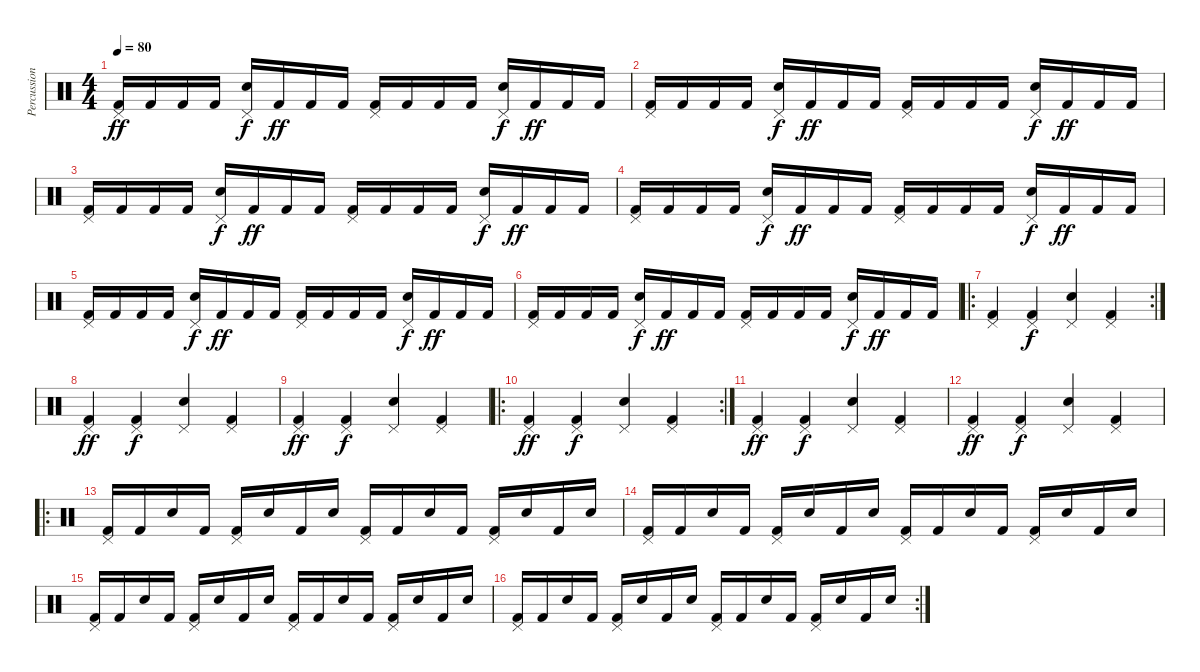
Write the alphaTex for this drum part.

\track ("Percussions" "Percussion") {instrument percussion}
\staff {score}
\articulation defaults
\ts (4 4)
\tempo 80
\clef neutral
\ks c
("Pedal Hi-Hat (hit)" "Kick (hit) 2").16{dy ff} "Kick (hit) 2".16 "Kick (hit) 2".16 "Kick (hit) 2".16 ("Pedal Hi-Hat (hit)" "Snare (hit) 2").16{dy f} "Kick (hit) 2".16{dy ff} "Kick (hit) 2".16 "Kick (hit) 2".16 ("Pedal Hi-Hat (hit)" "Kick (hit) 2").16 "Kick (hit) 2".16 "Kick (hit) 2".16 "Kick (hit) 2".16 ("Pedal Hi-Hat (hit)" "Snare (hit) 2").16{dy f} "Kick (hit) 2".16{dy ff} "Kick (hit) 2".16 "Kick (hit) 2".16 |
("Pedal Hi-Hat (hit)" "Kick (hit) 2").16 "Kick (hit) 2".16 "Kick (hit) 2".16 "Kick (hit) 2".16 ("Pedal Hi-Hat (hit)" "Snare (hit) 2").16{dy f} "Kick (hit) 2".16{dy ff} "Kick (hit) 2".16 "Kick (hit) 2".16 ("Pedal Hi-Hat (hit)" "Kick (hit) 2").16 "Kick (hit) 2".16 "Kick (hit) 2".16 "Kick (hit) 2".16 ("Pedal Hi-Hat (hit)" "Snare (hit) 2").16{dy f} "Kick (hit) 2".16{dy ff} "Kick (hit) 2".16 "Kick (hit) 2".16 |
("Pedal Hi-Hat (hit)" "Kick (hit) 2").16 "Kick (hit) 2".16 "Kick (hit) 2".16 "Kick (hit) 2".16 ("Pedal Hi-Hat (hit)" "Snare (hit) 2").16{dy f} "Kick (hit) 2".16{dy ff} "Kick (hit) 2".16 "Kick (hit) 2".16 ("Pedal Hi-Hat (hit)" "Kick (hit) 2").16 "Kick (hit) 2".16 "Kick (hit) 2".16 "Kick (hit) 2".16 ("Pedal Hi-Hat (hit)" "Snare (hit) 2").16{dy f} "Kick (hit) 2".16{dy ff} "Kick (hit) 2".16 "Kick (hit) 2".16 |
("Pedal Hi-Hat (hit)" "Kick (hit) 2").16 "Kick (hit) 2".16 "Kick (hit) 2".16 "Kick (hit) 2".16 ("Pedal Hi-Hat (hit)" "Snare (hit) 2").16{dy f} "Kick (hit) 2".16{dy ff} "Kick (hit) 2".16 "Kick (hit) 2".16 ("Pedal Hi-Hat (hit)" "Kick (hit) 2").16 "Kick (hit) 2".16 "Kick (hit) 2".16 "Kick (hit) 2".16 ("Pedal Hi-Hat (hit)" "Snare (hit) 2").16{dy f} "Kick (hit) 2".16{dy ff} "Kick (hit) 2".16 "Kick (hit) 2".16 |
("Pedal Hi-Hat (hit)" "Kick (hit) 2").16 "Kick (hit) 2".16 "Kick (hit) 2".16 "Kick (hit) 2".16 ("Pedal Hi-Hat (hit)" "Snare (hit) 2").16{dy f} "Kick (hit) 2".16{dy ff} "Kick (hit) 2".16 "Kick (hit) 2".16 ("Pedal Hi-Hat (hit)" "Kick (hit) 2").16 "Kick (hit) 2".16 "Kick (hit) 2".16 "Kick (hit) 2".16 ("Pedal Hi-Hat (hit)" "Snare (hit) 2").16{dy f} "Kick (hit) 2".16{dy ff} "Kick (hit) 2".16 "Kick (hit) 2".16 |
("Pedal Hi-Hat (hit)" "Kick (hit) 2").16 "Kick (hit) 2".16 "Kick (hit) 2".16 "Kick (hit) 2".16 ("Pedal Hi-Hat (hit)" "Snare (hit) 2").16{dy f} "Kick (hit) 2".16{dy ff} "Kick (hit) 2".16 "Kick (hit) 2".16 ("Pedal Hi-Hat (hit)" "Kick (hit) 2").16 "Kick (hit) 2".16 "Kick (hit) 2".16 "Kick (hit) 2".16 ("Pedal Hi-Hat (hit)" "Snare (hit) 2").16{dy f} "Kick (hit) 2".16{dy ff} "Kick (hit) 2".16 "Kick (hit) 2".16 |
\ro
\rc 2
("Pedal Hi-Hat (hit)" "Kick (hit) 2").4 ("Pedal Hi-Hat (hit)" "Kick (hit) 2").4{dy f} ("Pedal Hi-Hat (hit)" "Snare (hit) 2").4 ("Pedal Hi-Hat (hit)" "Kick (hit) 2").4 |
("Pedal Hi-Hat (hit)" "Kick (hit) 2").4{dy ff} ("Pedal Hi-Hat (hit)" "Kick (hit) 2").4{dy f} ("Pedal Hi-Hat (hit)" "Snare (hit) 2").4 ("Pedal Hi-Hat (hit)" "Kick (hit) 2").4 |
("Pedal Hi-Hat (hit)" "Kick (hit) 2").4{dy ff} ("Pedal Hi-Hat (hit)" "Kick (hit) 2").4{dy f} ("Pedal Hi-Hat (hit)" "Snare (hit) 2").4 ("Pedal Hi-Hat (hit)" "Kick (hit) 2").4 |
\ro
\rc 2
("Pedal Hi-Hat (hit)" "Kick (hit) 2").4{dy ff} ("Pedal Hi-Hat (hit)" "Kick (hit) 2").4{dy f} ("Pedal Hi-Hat (hit)" "Snare (hit) 2").4 ("Pedal Hi-Hat (hit)" "Kick (hit) 2").4 |
("Pedal Hi-Hat (hit)" "Kick (hit) 2").4{dy ff} ("Pedal Hi-Hat (hit)" "Kick (hit) 2").4{dy f} ("Pedal Hi-Hat (hit)" "Snare (hit) 2").4 ("Pedal Hi-Hat (hit)" "Kick (hit) 2").4 |
("Pedal Hi-Hat (hit)" "Kick (hit) 2").4{dy ff} ("Pedal Hi-Hat (hit)" "Kick (hit) 2").4{dy f} ("Pedal Hi-Hat (hit)" "Snare (hit) 2").4 ("Pedal Hi-Hat (hit)" "Kick (hit) 2").4 |
\ro
("Pedal Hi-Hat (hit)" "Kick (hit) 2").16 "Kick (hit) 2".16 "Snare (hit) 2".16 "Kick (hit) 2".16 ("Pedal Hi-Hat (hit)" "Kick (hit) 2").16 "Snare (hit) 2".16 "Kick (hit) 2".16 "Snare (hit) 2".16 ("Pedal Hi-Hat (hit)" "Kick (hit) 2").16 "Kick (hit) 2".16 "Snare (hit) 2".16 "Kick (hit) 2".16 ("Pedal Hi-Hat (hit)" "Kick (hit) 2").16 "Snare (hit) 2".16 "Kick (hit) 2".16 "Snare (hit) 2".16 |
("Pedal Hi-Hat (hit)" "Kick (hit) 2").16 "Kick (hit) 2".16 "Snare (hit) 2".16 "Kick (hit) 2".16 ("Pedal Hi-Hat (hit)" "Kick (hit) 2").16 "Snare (hit) 2".16 "Kick (hit) 2".16 "Snare (hit) 2".16 ("Pedal Hi-Hat (hit)" "Kick (hit) 2").16 "Kick (hit) 2".16 "Snare (hit) 2".16 "Kick (hit) 2".16 ("Pedal Hi-Hat (hit)" "Kick (hit) 2").16 "Snare (hit) 2".16 "Kick (hit) 2".16 "Snare (hit) 2".16 |
("Pedal Hi-Hat (hit)" "Kick (hit) 2").16 "Kick (hit) 2".16 "Snare (hit) 2".16 "Kick (hit) 2".16 ("Pedal Hi-Hat (hit)" "Kick (hit) 2").16 "Snare (hit) 2".16 "Kick (hit) 2".16 "Snare (hit) 2".16 ("Pedal Hi-Hat (hit)" "Kick (hit) 2").16 "Kick (hit) 2".16 "Snare (hit) 2".16 "Kick (hit) 2".16 ("Pedal Hi-Hat (hit)" "Kick (hit) 2").16 "Snare (hit) 2".16 "Kick (hit) 2".16 "Snare (hit) 2".16 |
\rc 2
("Pedal Hi-Hat (hit)" "Kick (hit) 2").16 "Kick (hit) 2".16 "Snare (hit) 2".16 "Kick (hit) 2".16 ("Pedal Hi-Hat (hit)" "Kick (hit) 2").16 "Snare (hit) 2".16 "Kick (hit) 2".16 "Snare (hit) 2".16 ("Pedal Hi-Hat (hit)" "Kick (hit) 2").16 "Kick (hit) 2".16 "Snare (hit) 2".16 "Kick (hit) 2".16 ("Pedal Hi-Hat (hit)" "Kick (hit) 2").16 "Snare (hit) 2".16 "Kick (hit) 2".16 "Snare (hit) 2".16
